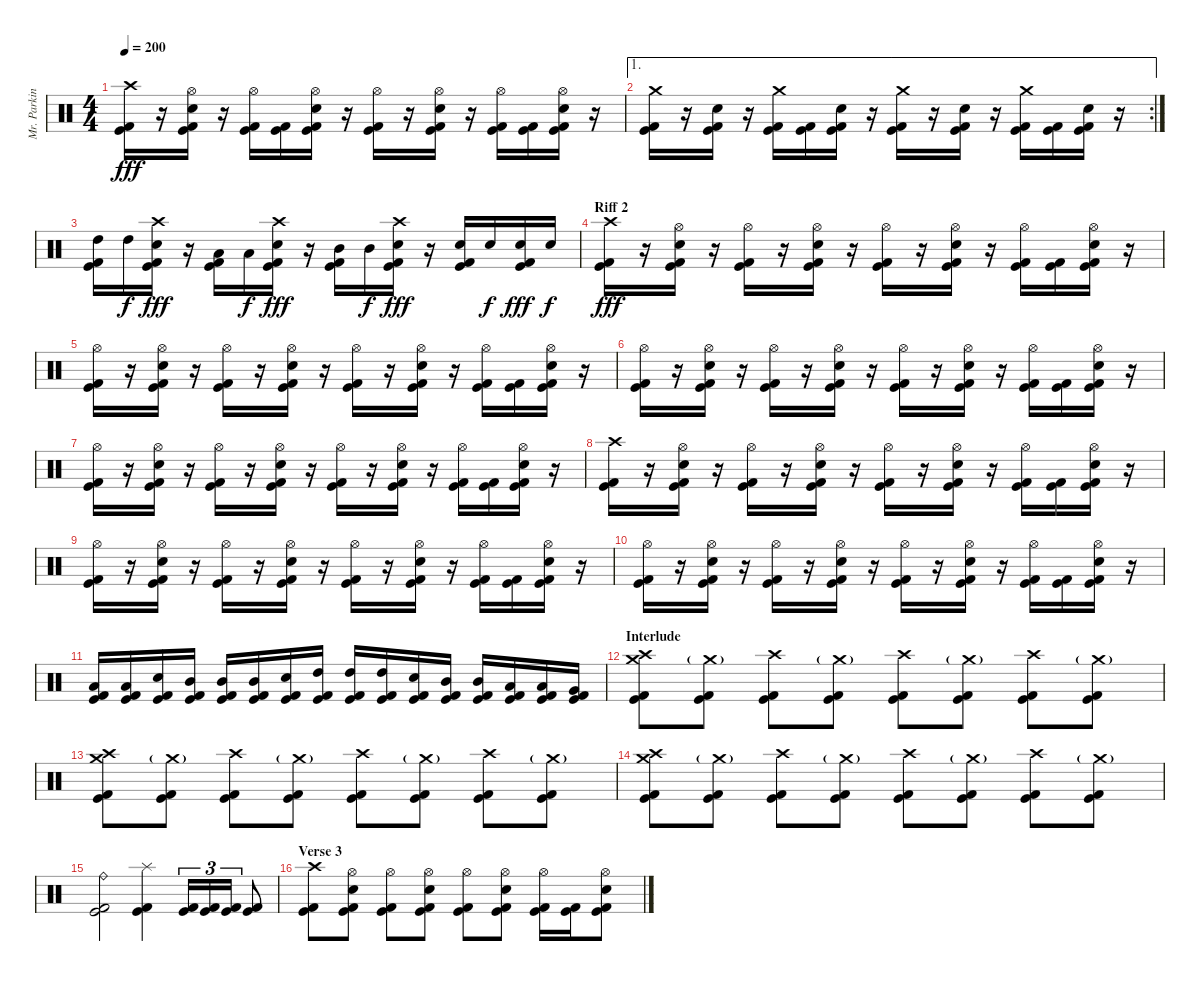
\track ("Mr. Parkinson" "Mr. Parkin") {instrument percussion}
\staff {score}
\articulation defaults
\ts (4 4)
\tempo 200
\clef neutral
\ks c
("Crash high (hit)" "Kick (hit)" "Kick (hit) 2").16{dy fff} r.16 ("Hi-Hat (open)" "Electric Snare (hit)" "Kick (hit)" "Kick (hit) 2").16 r.16 ("Hi-Hat (open)" "Kick (hit)" "Kick (hit) 2").16 ("Kick (hit)" "Kick (hit) 2").16 ("Hi-Hat (open)" "Electric Snare (hit)" "Kick (hit)" "Kick (hit) 2").16 r.16 ("Hi-Hat (open)" "Kick (hit)" "Kick (hit) 2").16 r.16 ("Hi-Hat (open)" "Electric Snare (hit)" "Kick (hit)" "Kick (hit) 2").16 r.16 ("Hi-Hat (open)" "Kick (hit)" "Kick (hit) 2").16 ("Kick (hit)" "Kick (hit) 2").16 ("Hi-Hat (open)" "Electric Snare (hit)" "Kick (hit)" "Kick (hit) 2").16 r.16 |
\ae 1
\rc 2
("Crash medium (hit)" "Kick (hit)" "Kick (hit) 2").16 r.16 ("Electric Snare (hit)" "Kick (hit)" "Kick (hit) 2").16 r.16 ("Crash medium (hit)" "Kick (hit)" "Kick (hit) 2").16 ("Kick (hit)" "Kick (hit) 2").16 ("Electric Snare (hit)" "Kick (hit)" "Kick (hit) 2").16 r.16 ("Crash medium (hit)" "Kick (hit)" "Kick (hit) 2").16 r.16 ("Electric Snare (hit)" "Kick (hit)" "Kick (hit) 2").16 r.16 ("Crash medium (hit)" "Kick (hit)" "Kick (hit) 2").16 ("Kick (hit)" "Kick (hit) 2").16 ("Electric Snare (hit)" "Kick (hit)" "Kick (hit) 2").16 r.16 |
("High Tom (hit)" "Kick (hit)" "Kick (hit) 2").16 "High Tom (hit)".16{dy f} ("Crash high (hit)" "Electric Snare (hit)" "Kick (hit)" "Kick (hit) 2").16{dy fff} r.16 ("Low Tom (hit)" "Kick (hit)" "Kick (hit) 2").16 "Low Tom (hit)".16{dy f} ("Crash high (hit)" "Electric Snare (hit)" "Kick (hit)" "Kick (hit) 2").16{dy fff} r.16 ("Mid Tom (hit)" "Kick (hit)" "Kick (hit) 2").16 "Mid Tom (hit)".16{dy f} ("Crash high (hit)" "Electric Snare (hit)" "Kick (hit)" "Kick (hit) 2").16{dy fff} r.16 ("Electric Snare (hit)" "Kick (hit)" "Kick (hit) 2").16 "Electric Snare (hit)".16{dy f} ("Electric Snare (hit)" "Kick (hit)" "Kick (hit) 2").16{dy fff} "Electric Snare (hit)".16{dy f} |
\section ("" "Riff 2")
("Crash high (hit)" "Kick (hit)" "Kick (hit) 2").16{dy fff} r.16 ("Hi-Hat (open)" "Electric Snare (hit)" "Kick (hit)" "Kick (hit) 2").16 r.16 ("Hi-Hat (open)" "Kick (hit)" "Kick (hit) 2").16 r.16 ("Hi-Hat (open)" "Electric Snare (hit)" "Kick (hit)" "Kick (hit) 2").16 r.16 ("Hi-Hat (open)" "Kick (hit)" "Kick (hit) 2").16 r.16 ("Hi-Hat (open)" "Electric Snare (hit)" "Kick (hit)" "Kick (hit) 2").16 r.16 ("Hi-Hat (open)" "Kick (hit)" "Kick (hit) 2").16 ("Kick (hit)" "Kick (hit) 2").16 ("Hi-Hat (open)" "Electric Snare (hit)" "Kick (hit)" "Kick (hit) 2").16 r.16 |
("Hi-Hat (open)" "Kick (hit)" "Kick (hit) 2").16 r.16 ("Hi-Hat (open)" "Electric Snare (hit)" "Kick (hit)" "Kick (hit) 2").16 r.16 ("Hi-Hat (open)" "Kick (hit)" "Kick (hit) 2").16 r.16 ("Hi-Hat (open)" "Electric Snare (hit)" "Kick (hit)" "Kick (hit) 2").16 r.16 ("Hi-Hat (open)" "Kick (hit)" "Kick (hit) 2").16 r.16 ("Hi-Hat (open)" "Electric Snare (hit)" "Kick (hit)" "Kick (hit) 2").16 r.16 ("Hi-Hat (open)" "Kick (hit)" "Kick (hit) 2").16 ("Kick (hit)" "Kick (hit) 2").16 ("Hi-Hat (open)" "Electric Snare (hit)" "Kick (hit)" "Kick (hit) 2").16 r.16 |
("Hi-Hat (open)" "Kick (hit)" "Kick (hit) 2").16 r.16 ("Hi-Hat (open)" "Electric Snare (hit)" "Kick (hit)" "Kick (hit) 2").16 r.16 ("Hi-Hat (open)" "Kick (hit)" "Kick (hit) 2").16 r.16 ("Hi-Hat (open)" "Electric Snare (hit)" "Kick (hit)" "Kick (hit) 2").16 r.16 ("Hi-Hat (open)" "Kick (hit)" "Kick (hit) 2").16 r.16 ("Hi-Hat (open)" "Electric Snare (hit)" "Kick (hit)" "Kick (hit) 2").16 r.16 ("Hi-Hat (open)" "Kick (hit)" "Kick (hit) 2").16 ("Kick (hit)" "Kick (hit) 2").16 ("Hi-Hat (open)" "Electric Snare (hit)" "Kick (hit)" "Kick (hit) 2").16 r.16 |
("Hi-Hat (open)" "Kick (hit)" "Kick (hit) 2").16 r.16 ("Hi-Hat (open)" "Electric Snare (hit)" "Kick (hit)" "Kick (hit) 2").16 r.16 ("Hi-Hat (open)" "Kick (hit)" "Kick (hit) 2").16 r.16 ("Hi-Hat (open)" "Electric Snare (hit)" "Kick (hit)" "Kick (hit) 2").16 r.16 ("Hi-Hat (open)" "Kick (hit)" "Kick (hit) 2").16 r.16 ("Hi-Hat (open)" "Electric Snare (hit)" "Kick (hit)" "Kick (hit) 2").16 r.16 ("Hi-Hat (open)" "Kick (hit)" "Kick (hit) 2").16 ("Kick (hit)" "Kick (hit) 2").16 ("Hi-Hat (open)" "Electric Snare (hit)" "Kick (hit)" "Kick (hit) 2").16 r.16 |
("Crash high (hit)" "Kick (hit)" "Kick (hit) 2").16 r.16 ("Hi-Hat (open)" "Electric Snare (hit)" "Kick (hit)" "Kick (hit) 2").16 r.16 ("Hi-Hat (open)" "Kick (hit)" "Kick (hit) 2").16 r.16 ("Hi-Hat (open)" "Electric Snare (hit)" "Kick (hit)" "Kick (hit) 2").16 r.16 ("Hi-Hat (open)" "Kick (hit)" "Kick (hit) 2").16 r.16 ("Hi-Hat (open)" "Electric Snare (hit)" "Kick (hit)" "Kick (hit) 2").16 r.16 ("Hi-Hat (open)" "Kick (hit)" "Kick (hit) 2").16 ("Kick (hit)" "Kick (hit) 2").16 ("Hi-Hat (open)" "Electric Snare (hit)" "Kick (hit)" "Kick (hit) 2").16 r.16 |
("Hi-Hat (open)" "Kick (hit)" "Kick (hit) 2").16 r.16 ("Hi-Hat (open)" "Electric Snare (hit)" "Kick (hit)" "Kick (hit) 2").16 r.16 ("Hi-Hat (open)" "Kick (hit)" "Kick (hit) 2").16 r.16 ("Hi-Hat (open)" "Electric Snare (hit)" "Kick (hit)" "Kick (hit) 2").16 r.16 ("Hi-Hat (open)" "Kick (hit)" "Kick (hit) 2").16 r.16 ("Hi-Hat (open)" "Electric Snare (hit)" "Kick (hit)" "Kick (hit) 2").16 r.16 ("Hi-Hat (open)" "Kick (hit)" "Kick (hit) 2").16 ("Kick (hit)" "Kick (hit) 2").16 ("Hi-Hat (open)" "Electric Snare (hit)" "Kick (hit)" "Kick (hit) 2").16 r.16 |
("Hi-Hat (open)" "Kick (hit)" "Kick (hit) 2").16 r.16 ("Hi-Hat (open)" "Electric Snare (hit)" "Kick (hit)" "Kick (hit) 2").16 r.16 ("Hi-Hat (open)" "Kick (hit)" "Kick (hit) 2").16 r.16 ("Hi-Hat (open)" "Electric Snare (hit)" "Kick (hit)" "Kick (hit) 2").16 r.16 ("Hi-Hat (open)" "Kick (hit)" "Kick (hit) 2").16 r.16 ("Hi-Hat (open)" "Electric Snare (hit)" "Kick (hit)" "Kick (hit) 2").16 r.16 ("Hi-Hat (open)" "Kick (hit)" "Kick (hit) 2").16 ("Kick (hit)" "Kick (hit) 2").16 ("Hi-Hat (open)" "Electric Snare (hit)" "Kick (hit)" "Kick (hit) 2").16 r.16 |
("Low Tom (hit)" "Kick (hit)" "Kick (hit) 2").16 ("Low Tom (hit)" "Kick (hit)" "Kick (hit) 2").16 ("Electric Snare (hit)" "Kick (hit)" "Kick (hit) 2").16 ("Mid Tom (hit)" "Kick (hit)" "Kick (hit) 2").16 ("Mid Tom (hit)" "Kick (hit)" "Kick (hit) 2").16 ("Mid Tom (hit)" "Kick (hit)" "Kick (hit) 2").16 ("Electric Snare (hit)" "Kick (hit)" "Kick (hit) 2").16 ("High Tom (hit)" "Kick (hit)" "Kick (hit) 2").16 ("High Tom (hit)" "Kick (hit)" "Kick (hit) 2").16 ("High Tom (hit)" "Kick (hit)" "Kick (hit) 2").16 ("Electric Snare (hit)" "Kick (hit)" "Kick (hit) 2").16 ("Mid Tom (hit)" "Kick (hit)" "Kick (hit) 2").16 ("Mid Tom (hit)" "Kick (hit)" "Kick (hit) 2").16 ("Low Tom (hit)" "Kick (hit)" "Kick (hit) 2").16 ("Low Tom (hit)" "Kick (hit)" "Kick (hit) 2").16 ("Very Low Tom (hit)" "Kick (hit)" "Kick (hit) 2").16 |
\section ("" "Interlude")
("Crash medium (hit)" "Crash high (hit)" "Kick (hit)" "Kick (hit) 2").8 ("Crash medium (hit)"{g} "Kick (hit)" "Kick (hit) 2").8 ("Crash high (hit)" "Kick (hit)" "Kick (hit) 2").8 ("Crash medium (hit)"{g} "Kick (hit)" "Kick (hit) 2").8 ("Crash high (hit)" "Kick (hit)" "Kick (hit) 2").8 ("Crash medium (hit)"{g} "Kick (hit)" "Kick (hit) 2").8 ("Crash high (hit)" "Kick (hit)" "Kick (hit) 2").8 ("Crash medium (hit)"{g} "Kick (hit)" "Kick (hit) 2").8 |
("Crash medium (hit)" "Crash high (hit)" "Kick (hit)" "Kick (hit) 2").8 ("Crash medium (hit)"{g} "Kick (hit)" "Kick (hit) 2").8 ("Crash high (hit)" "Kick (hit)" "Kick (hit) 2").8 ("Crash medium (hit)"{g} "Kick (hit)" "Kick (hit) 2").8 ("Crash high (hit)" "Kick (hit)" "Kick (hit) 2").8 ("Crash medium (hit)"{g} "Kick (hit)" "Kick (hit) 2").8 ("Crash high (hit)" "Kick (hit)" "Kick (hit) 2").8 ("Crash medium (hit)"{g} "Kick (hit)" "Kick (hit) 2").8 |
("Crash medium (hit)" "Crash high (hit)" "Kick (hit)" "Kick (hit) 2").8 ("Crash medium (hit)"{g} "Kick (hit)" "Kick (hit) 2").8 ("Crash high (hit)" "Kick (hit)" "Kick (hit) 2").8 ("Crash medium (hit)"{g} "Kick (hit)" "Kick (hit) 2").8 ("Crash high (hit)" "Kick (hit)" "Kick (hit) 2").8 ("Crash medium (hit)"{g} "Kick (hit)" "Kick (hit) 2").8 ("Crash high (hit)" "Kick (hit)" "Kick (hit) 2").8 ("Crash medium (hit)"{g} "Kick (hit)" "Kick (hit) 2").8 |
("Ride (bell)" "Kick (hit)" "Kick (hit) 2").2 ("Splash (hit)" "Kick (hit)" "Kick (hit) 2").4 ("Kick (hit)" "Kick (hit) 2").16{tu (3 2)} ("Kick (hit)" "Kick (hit) 2").16{tu (3 2)} ("Kick (hit)" "Kick (hit) 2").16{tu (3 2)} ("Kick (hit)" "Kick (hit) 2").8 |
\section ("" "Verse 3")
("Crash high (hit)" "Kick (hit)" "Kick (hit) 2").8 ("Hi-Hat (open)" "Electric Snare (hit)" "Kick (hit)" "Kick (hit) 2").8 ("Hi-Hat (open)" "Kick (hit)" "Kick (hit) 2").8 ("Hi-Hat (open)" "Electric Snare (hit)" "Kick (hit)" "Kick (hit) 2").8 ("Hi-Hat (open)" "Kick (hit)" "Kick (hit) 2").8 ("Hi-Hat (open)" "Electric Snare (hit)" "Kick (hit)" "Kick (hit) 2").8 ("Hi-Hat (open)" "Kick (hit)" "Kick (hit) 2").16 ("Kick (hit)" "Kick (hit) 2").16 ("Hi-Hat (open)" "Electric Snare (hit)" "Kick (hit)" "Kick (hit) 2").8
